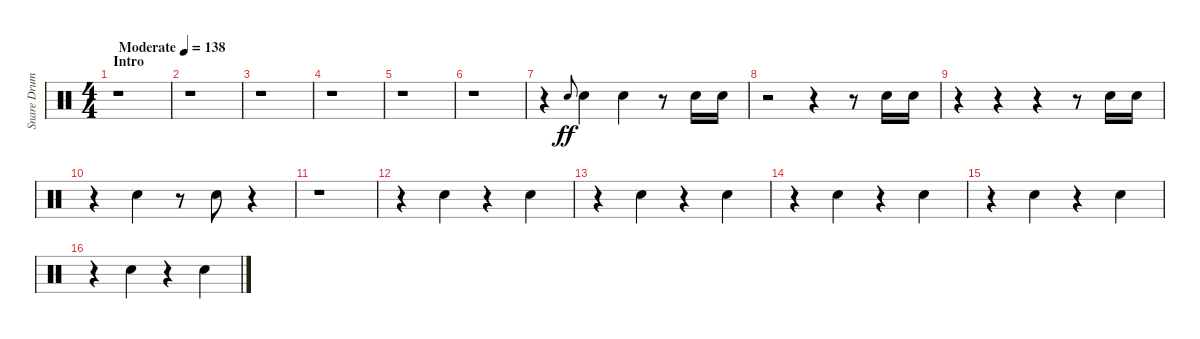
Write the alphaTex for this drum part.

\track ("Snare Drum" "Snare Drum") {instrument percussion}
\staff {score}
\articulation defaults
\ts (4 4)
\section ("" "Intro")
\tempo (138 "Moderate")
\clef neutral
\ks c
r.1{dy ff} |
r.1 |
r.1 |
r.1 |
r.1 |
r.1 |
r.4 "Electric Snare (hit)".8{gr onbeat} "Electric Snare (hit)".4 "Electric Snare (hit)".4 r.8 "Electric Snare (hit)".16 "Electric Snare (hit)".16 |
r.2 r.4 r.8 "Electric Snare (hit)".16 "Electric Snare (hit)".16 |
r.4 r.4 r.4 r.8 "Electric Snare (hit)".16 "Electric Snare (hit)".16 |
r.4 "Electric Snare (hit)".4 r.8 "Electric Snare (hit)".8 r.4 |
r.1 |
r.4 "Electric Snare (hit)".4 r.4 "Electric Snare (hit)".4 |
r.4 "Electric Snare (hit)".4 r.4 "Electric Snare (hit)".4 |
r.4 "Electric Snare (hit)".4 r.4 "Electric Snare (hit)".4 |
r.4 "Electric Snare (hit)".4 r.4 "Electric Snare (hit)".4 |
r.4 "Electric Snare (hit)".4 r.4 "Electric Snare (hit)".4
